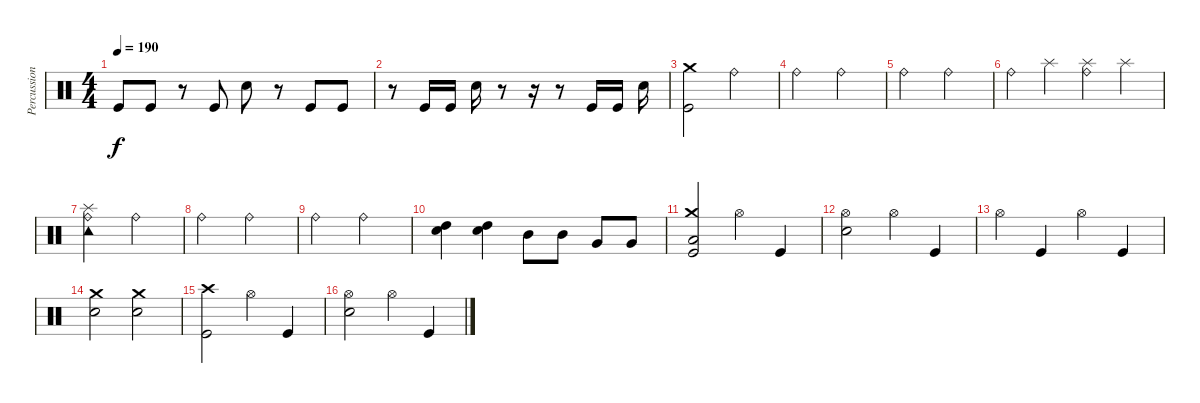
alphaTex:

\track ("Percussion" "Percussion") {instrument percussion}
\staff {score}
\articulation defaults
\ts (4 4)
\tempo 190
\clef neutral
\ks c "Kick (hit)".8{dy f} "Kick (hit)".8
r.8 "Kick (hit)".8 "Electric Snare (hit)".8 r.8 "Kick (hit)".8 "Kick (hit)".8 |
r.8 "Kick (hit)".16 "Kick (hit)".16 "Electric Snare (hit)".16 r.8 r.16 r.8 "Kick (hit)".16 "Kick (hit)".16 "Electric Snare (hit)".16 |
("Crash medium (hit)" "Kick (hit)").2 "Ride (bell)".2 |
"Ride (bell)".2 "Ride (bell)".2 |
"Ride (bell)".2 "Ride (bell)".2 |
"Ride (bell)".4 "Splash (hit)".4 ("Splash (hit)" "Ride (bell)").4 "Splash (hit)".4 |
("Splash (hit)" "Tambourine (hit)" "Ride (bell)").2 "Ride (bell)".2 |
"Ride (bell)".2 "Ride (bell)".2 |
"Ride (bell)".2 "Ride (bell)".2 |
("Electric Snare (hit)" "High Tom (hit)").4 ("Electric Snare (hit)" "High Tom (hit)").4 "Mid Tom (hit)".8 "Mid Tom (hit)".8 "Very Low Tom (hit)".8 "Very Low Tom (hit)".8 |
("Crash medium (hit)" "Kick (hit)" "Low Floor Tom (hit)").2 "Hi-Hat (open)".4 "Kick (hit)".4 |
("Hi-Hat (open)" "Electric Snare (hit)").2 "Hi-Hat (open)".4 "Kick (hit)".4 |
"Hi-Hat (open)".4 "Kick (hit)".4 "Hi-Hat (open)".4 "Kick (hit)".4 |
("Crash medium (hit)" "Electric Snare (hit)").2 ("Crash medium (hit)" "Electric Snare (hit)").2 |
("Crash high (hit)" "Kick (hit)").2 "Hi-Hat (open)".4 "Kick (hit)".4 |
("Hi-Hat (open)" "Electric Snare (hit)").2 "Hi-Hat (open)".4 "Kick (hit)".4
